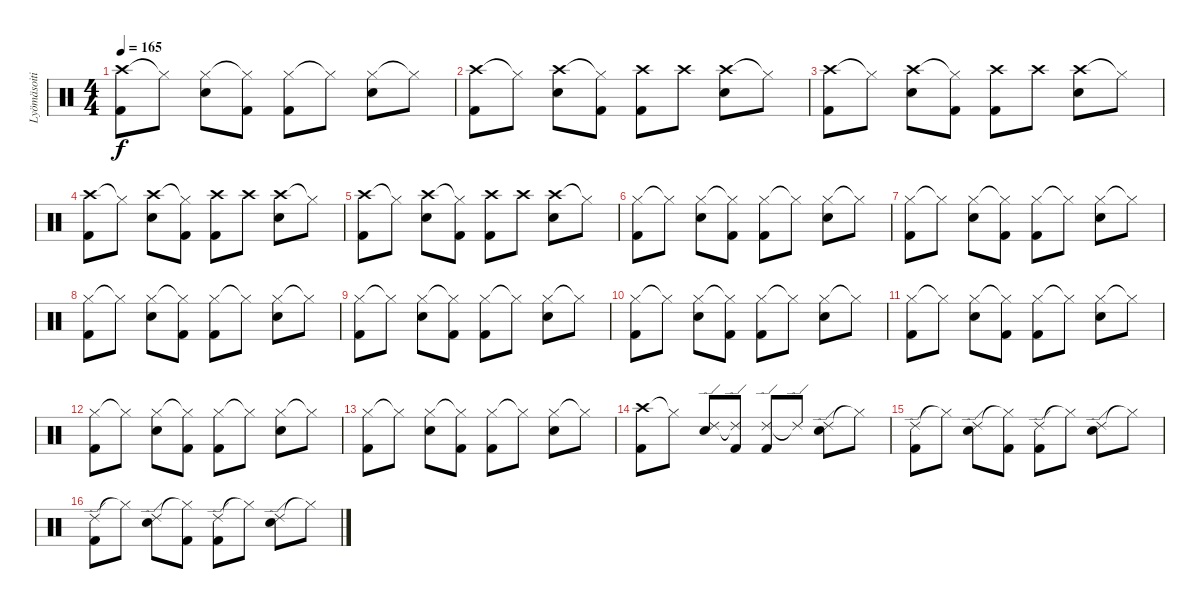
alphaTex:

\track ("Lyömäsoitin" "Lyömäsoiti") {instrument percussion}
\staff {score}
\articulation defaults
\ts (4 4)
\tempo 165
\clef neutral
\ks c
("Crash high (hit)" "Kick (hit) 2").8{dy f} "Hi-Hat (closed)"{t}.8 ("Hi-Hat (closed)" "Snare (hit) 2").8 ("Hi-Hat (closed)"{t} "Kick (hit) 2").8 ("Hi-Hat (closed)" "Kick (hit) 2").8 "Hi-Hat (closed)"{t}.8 ("Hi-Hat (closed)" "Snare (hit) 2").8 "Hi-Hat (closed)"{t}.8 |
("Crash high (hit)" "Kick (hit) 2").8 "Hi-Hat (closed)"{t}.8 ("Crash high (hit)" "Snare (hit) 2").8 ("Hi-Hat (closed)"{t} "Kick (hit) 2").8 ("Crash high (hit)" "Kick (hit) 2").8 "Crash high (hit)".8 ("Crash high (hit)" "Snare (hit) 2").8 "Hi-Hat (closed)"{t}.8 |
("Crash high (hit)" "Kick (hit) 2").8 "Hi-Hat (closed)"{t}.8 ("Crash high (hit)" "Snare (hit) 2").8 ("Hi-Hat (closed)"{t} "Kick (hit) 2").8 ("Crash high (hit)" "Kick (hit) 2").8 "Crash high (hit)".8 ("Crash high (hit)" "Snare (hit) 2").8 "Hi-Hat (closed)"{t}.8 |
("Crash high (hit)" "Kick (hit) 2").8 "Hi-Hat (closed)"{t}.8 ("Crash high (hit)" "Snare (hit) 2").8 ("Hi-Hat (closed)"{t} "Kick (hit) 2").8 ("Crash high (hit)" "Kick (hit) 2").8 "Crash high (hit)".8 ("Crash high (hit)" "Snare (hit) 2").8 "Hi-Hat (closed)"{t}.8 |
("Crash high (hit)" "Kick (hit) 2").8 "Hi-Hat (closed)"{t}.8 ("Crash high (hit)" "Snare (hit) 2").8 ("Hi-Hat (closed)"{t} "Kick (hit) 2").8 ("Crash high (hit)" "Kick (hit) 2").8 "Crash high (hit)".8 ("Crash high (hit)" "Snare (hit) 2").8 "Hi-Hat (closed)"{t}.8 |
("Hi-Hat (closed)" "Kick (hit) 2").8 "Hi-Hat (closed)"{t}.8 ("Hi-Hat (closed)" "Snare (hit) 2").8 ("Hi-Hat (closed)"{t} "Kick (hit) 2").8 ("Hi-Hat (closed)" "Kick (hit) 2").8 "Hi-Hat (closed)"{t}.8 ("Hi-Hat (closed)" "Snare (hit) 2").8 "Hi-Hat (closed)"{t}.8 |
("Hi-Hat (closed)" "Kick (hit) 2").8 "Hi-Hat (closed)"{t}.8 ("Hi-Hat (closed)" "Snare (hit) 2").8 ("Hi-Hat (closed)"{t} "Kick (hit) 2").8 ("Hi-Hat (closed)" "Kick (hit) 2").8 "Hi-Hat (closed)"{t}.8 ("Hi-Hat (closed)" "Snare (hit) 2").8 "Hi-Hat (closed)"{t}.8 |
("Hi-Hat (closed)" "Kick (hit) 2").8 "Hi-Hat (closed)"{t}.8 ("Hi-Hat (closed)" "Snare (hit) 2").8 ("Hi-Hat (closed)"{t} "Kick (hit) 2").8 ("Hi-Hat (closed)" "Kick (hit) 2").8 "Hi-Hat (closed)"{t}.8 ("Hi-Hat (closed)" "Snare (hit) 2").8 "Hi-Hat (closed)"{t}.8 |
("Hi-Hat (closed)" "Kick (hit) 2").8 "Hi-Hat (closed)"{t}.8 ("Hi-Hat (closed)" "Snare (hit) 2").8 ("Hi-Hat (closed)"{t} "Kick (hit) 2").8 ("Hi-Hat (closed)" "Kick (hit) 2").8 "Hi-Hat (closed)"{t}.8 ("Hi-Hat (closed)" "Snare (hit) 2").8 "Hi-Hat (closed)"{t}.8 |
("Hi-Hat (closed)" "Kick (hit) 2").8 "Hi-Hat (closed)"{t}.8 ("Hi-Hat (closed)" "Snare (hit) 2").8 ("Hi-Hat (closed)"{t} "Kick (hit) 2").8 ("Hi-Hat (closed)" "Kick (hit) 2").8 "Hi-Hat (closed)"{t}.8 ("Hi-Hat (closed)" "Snare (hit) 2").8 "Hi-Hat (closed)"{t}.8 |
("Hi-Hat (closed)" "Kick (hit) 2").8 "Hi-Hat (closed)"{t}.8 ("Hi-Hat (closed)" "Snare (hit) 2").8 ("Hi-Hat (closed)"{t} "Kick (hit) 2").8 ("Hi-Hat (closed)" "Kick (hit) 2").8 "Hi-Hat (closed)"{t}.8 ("Hi-Hat (closed)" "Snare (hit) 2").8 "Hi-Hat (closed)"{t}.8 |
("Hi-Hat (closed)" "Kick (hit) 2").8 "Hi-Hat (closed)"{t}.8 ("Hi-Hat (closed)" "Snare (hit) 2").8 ("Hi-Hat (closed)"{t} "Kick (hit) 2").8 ("Hi-Hat (closed)" "Kick (hit) 2").8 "Hi-Hat (closed)"{t}.8 ("Hi-Hat (closed)" "Snare (hit) 2").8 "Hi-Hat (closed)"{t}.8 |
("Hi-Hat (closed)" "Kick (hit) 2").8 "Hi-Hat (closed)"{t}.8 ("Hi-Hat (closed)" "Snare (hit) 2").8 ("Hi-Hat (closed)"{t} "Kick (hit) 2").8 ("Hi-Hat (closed)" "Kick (hit) 2").8 "Hi-Hat (closed)"{t}.8 ("Hi-Hat (closed)" "Snare (hit) 2").8 "Hi-Hat (closed)"{t}.8 |
("Crash high (hit)" "Kick (hit) 2").8 "Hi-Hat (closed)"{t}.8 ("Ride (edge) 2" "Snare (hit) 2").8 ("Ride (edge) 2"{t} "Kick (hit) 2").8 ("Ride (edge) 2" "Kick (hit) 2").8 "Ride (edge) 2"{t}.8 ("Ride (edge) 2" "Snare (hit) 2").8 "Hi-Hat (closed)"{t}.8 |
("Ride (edge) 2" "Kick (hit) 2").8 "Hi-Hat (closed)"{t}.8 ("Ride (edge) 2" "Snare (hit) 2").8 ("Hi-Hat (closed)"{t} "Kick (hit) 2").8 ("Ride (edge) 2" "Kick (hit) 2").8 "Hi-Hat (closed)"{t}.8 ("Ride (edge) 2" "Snare (hit) 2").8 "Hi-Hat (closed)"{t}.8 |
("Ride (edge) 2" "Kick (hit) 2").8 "Hi-Hat (closed)"{t}.8 ("Ride (edge) 2" "Snare (hit) 2").8 ("Hi-Hat (closed)"{t} "Kick (hit) 2").8 ("Ride (edge) 2" "Kick (hit) 2").8 "Hi-Hat (closed)"{t}.8 ("Ride (edge) 2" "Snare (hit) 2").8 "Hi-Hat (closed)"{t}.8
